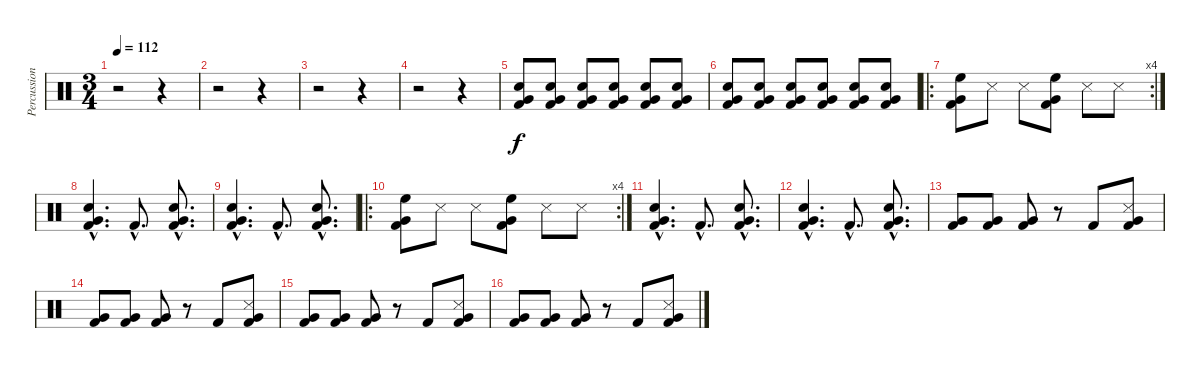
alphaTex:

\track ("Percussions" "Percussion") {instrument percussion}
\staff {score}
\articulation defaults
\ts (3 4)
\tempo 112
\clef neutral
\ks c
r.2{dy f} r.4 |
r.2 r.4 |
r.2 r.4 |
r.2 r.4 |
("Kick (hit) 2" "Very Low Tom (hit)" "Electric Snare (hit)").8 ("Kick (hit) 2" "Very Low Tom (hit)" "Electric Snare (hit)").8 ("Kick (hit) 2" "Very Low Tom (hit)" "Electric Snare (hit)").8 ("Kick (hit) 2" "Very Low Tom (hit)" "Electric Snare (hit)").8 ("Kick (hit) 2" "Very Low Tom (hit)" "Electric Snare (hit)").8 ("Kick (hit) 2" "Very Low Tom (hit)" "Electric Snare (hit)").8 |
("Kick (hit) 2" "Very Low Tom (hit)" "Electric Snare (hit)").8 ("Kick (hit) 2" "Very Low Tom (hit)" "Electric Snare (hit)").8 ("Kick (hit) 2" "Very Low Tom (hit)" "Electric Snare (hit)").8 ("Kick (hit) 2" "Very Low Tom (hit)" "Electric Snare (hit)").8 ("Kick (hit) 2" "Very Low Tom (hit)" "Electric Snare (hit)").8 ("Kick (hit) 2" "Very Low Tom (hit)" "Electric Snare (hit)").8 |
\ro
\rc 4
("Kick (hit) 2" "Very Low Tom (hit)" "High Floor Tom (hit)").8 "Snare (side stick) 3".8 "Snare (side stick) 3".8 ("Kick (hit) 2" "Very Low Tom (hit)" "High Floor Tom (hit)").8 "Snare (side stick) 3".8 "Snare (side stick) 3".8 |
("Kick (hit) 2"{hac} "Very Low Tom (hit)"{hac} "Electric Snare (hit)"{hac}).4{d} "Kick (hit) 2"{hac}.8{d} ("Kick (hit) 2"{hac} "Very Low Tom (hit)"{hac} "Electric Snare (hit)"{hac}).8{d} |
("Kick (hit) 2"{hac} "Very Low Tom (hit)"{hac} "Electric Snare (hit)"{hac}).4{d} "Kick (hit) 2"{hac}.8{d} ("Kick (hit) 2"{hac} "Very Low Tom (hit)"{hac} "Electric Snare (hit)"{hac}).8{d} |
\ro
\rc 4
("Kick (hit) 2" "Very Low Tom (hit)" "High Floor Tom (hit)").8 "Snare (side stick) 3".8 "Snare (side stick) 3".8 ("Kick (hit) 2" "Very Low Tom (hit)" "High Floor Tom (hit)").8 "Snare (side stick) 3".8 "Snare (side stick) 3".8 |
("Kick (hit) 2"{hac} "Very Low Tom (hit)"{hac} "Electric Snare (hit)"{hac}).4{d} "Kick (hit) 2"{hac}.8{d} ("Kick (hit) 2"{hac} "Very Low Tom (hit)"{hac} "Electric Snare (hit)"{hac}).8{d} |
("Kick (hit) 2"{hac} "Very Low Tom (hit)"{hac} "Electric Snare (hit)"{hac}).4{d} "Kick (hit) 2"{hac}.8{d} ("Kick (hit) 2"{hac} "Very Low Tom (hit)"{hac} "Electric Snare (hit)"{hac}).8{d} |
("Kick (hit) 2" "Very Low Tom (hit)").8 ("Kick (hit) 2" "Very Low Tom (hit)").8 ("Kick (hit) 2" "Very Low Tom (hit)").8 r.8 "Kick (hit) 2".8 ("Kick (hit) 2" "Very Low Tom (hit)" "Snare (side stick) 3").8 |
("Kick (hit) 2" "Very Low Tom (hit)").8 ("Kick (hit) 2" "Very Low Tom (hit)").8 ("Kick (hit) 2" "Very Low Tom (hit)").8 r.8 "Kick (hit) 2".8 ("Kick (hit) 2" "Very Low Tom (hit)" "Snare (side stick) 3").8 |
("Kick (hit) 2" "Very Low Tom (hit)").8 ("Kick (hit) 2" "Very Low Tom (hit)").8 ("Kick (hit) 2" "Very Low Tom (hit)").8 r.8 "Kick (hit) 2".8 ("Kick (hit) 2" "Very Low Tom (hit)" "Snare (side stick) 3").8 |
("Kick (hit) 2" "Very Low Tom (hit)").8 ("Kick (hit) 2" "Very Low Tom (hit)").8 ("Kick (hit) 2" "Very Low Tom (hit)").8 r.8 "Kick (hit) 2".8 ("Kick (hit) 2" "Very Low Tom (hit)" "Snare (side stick) 3").8
